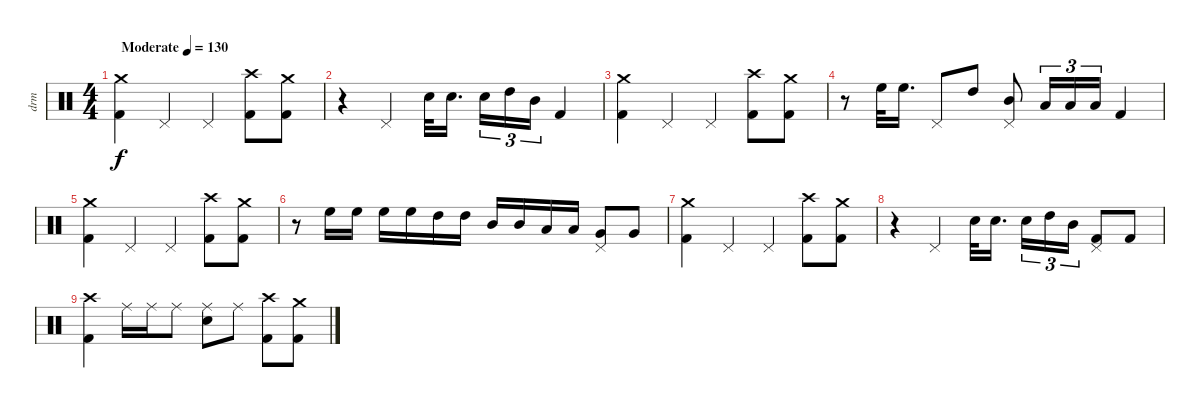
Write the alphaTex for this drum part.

\track ("drm" "drm") {instrument percussion}
\staff {score}
\articulation defaults
\ts (4 4)
\tempo (130 "Moderate")
\clef neutral
\ks c
("Crash medium (hit)" "Kick (hit) 2").4{dy f} "Pedal Hi-Hat (hit)".4 "Pedal Hi-Hat (hit)".4 ("Crash high (hit)" "Kick (hit) 2").8 ("Crash medium (hit)" "Kick (hit) 2").8 |
r.4 "Pedal Hi-Hat (hit)".4 "Electric Snare (hit)".32 "Electric Snare (hit)".16{d beam splitsecondary} "Electric Snare (hit)".16{tu (3 2)} "High Tom (hit)".16{tu (3 2)} "Mid Tom (hit)".16{tu (3 2)} "Kick (hit) 2".4 |
("Crash medium (hit)" "Kick (hit) 2").4 "Pedal Hi-Hat (hit)".4 "Pedal Hi-Hat (hit)".4 ("Crash high (hit)" "Kick (hit) 2").8 ("Crash medium (hit)" "Kick (hit) 2").8 |
r.8 "High Floor Tom (hit)".32 "High Floor Tom (hit)".16{d} "Pedal Hi-Hat (hit)".8 "High Tom (hit)".8 ("Mid Tom (hit)" "Pedal Hi-Hat (hit)").8 "Low Tom (hit)".16{tu (3 2)} "Low Tom (hit)".16{tu (3 2)} "Low Tom (hit)".16{tu (3 2)} "Kick (hit) 2".4 |
("Crash medium (hit)" "Kick (hit) 2").4 "Pedal Hi-Hat (hit)".4 "Pedal Hi-Hat (hit)".4 ("Crash high (hit)" "Kick (hit) 2").8 ("Crash medium (hit)" "Kick (hit) 2").8 |
r.8 "High Floor Tom (hit)".16 "High Floor Tom (hit)".16 "High Floor Tom (hit)".16 "High Floor Tom (hit)".16 "High Tom (hit)".16 "High Tom (hit)".16 "Mid Tom (hit)".16 "Mid Tom (hit)".16 "Low Tom (hit)".16 "Low Tom (hit)".16 ("Very Low Tom (hit)" "Pedal Hi-Hat (hit)").8 "Very Low Tom (hit)".8 |
("Crash medium (hit)" "Kick (hit) 2").4 "Pedal Hi-Hat (hit)".4 "Pedal Hi-Hat (hit)".4 ("Crash high (hit)" "Kick (hit) 2").8 ("Crash medium (hit)" "Kick (hit) 2").8 |
r.4 "Pedal Hi-Hat (hit)".4 "Electric Snare (hit)".32 "Electric Snare (hit)".16{d beam splitsecondary} "Electric Snare (hit)".16{tu (3 2)} "High Tom (hit)".16{tu (3 2)} "Mid Tom (hit)".16{tu (3 2)} ("Pedal Hi-Hat (hit)" "Kick (hit) 2").8 "Kick (hit) 2".8 |
("Crash high (hit)" "Kick (hit) 2").4 "Ride (middle)".16 "Ride (middle)".16 "Ride (middle)".8 ("Ride (middle)" "Electric Snare (hit)").8 "Ride (middle)".8 ("Crash high (hit)" "Kick (hit) 2").8 ("Crash medium (hit)" "Kick (hit) 2").8
